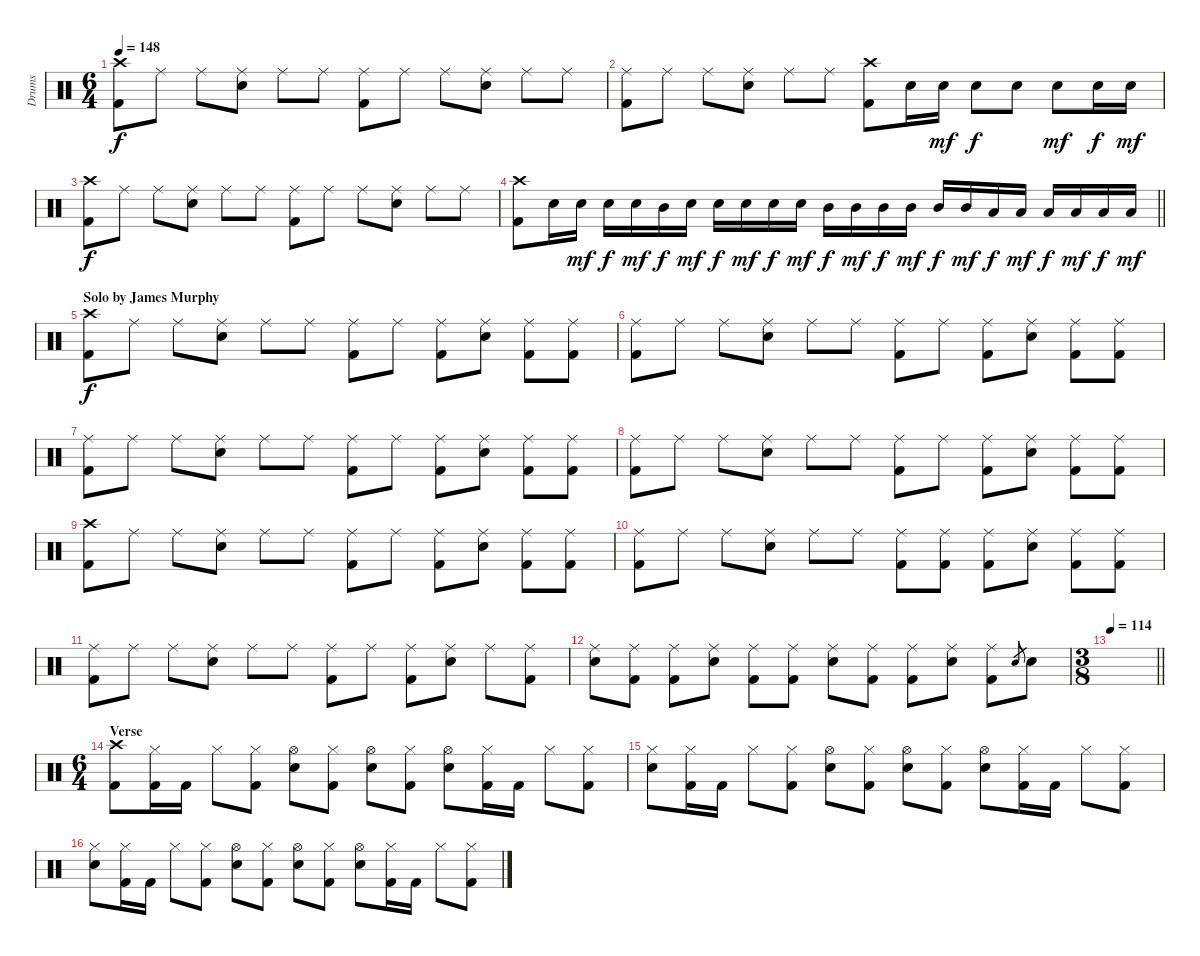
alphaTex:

\track ("Drums" "Drums") {instrument percussion}
\staff {score}
\articulation defaults
\ts (6 4)
\tempo 148
\clef neutral
\ks c
("Crash high (hit)" "Kick (hit) 2").8{dy f} "Ride (middle)".8 "Ride (middle)".8 ("Ride (middle)" "Snare (hit) 2").8 "Ride (middle)".8 "Ride (middle)".8 ("Ride (middle)" "Kick (hit) 2").8 "Ride (middle)".8 "Ride (middle)".8 ("Ride (middle)" "Snare (hit) 2").8 "Ride (middle)".8 "Ride (middle)".8 |
("Ride (middle)" "Kick (hit) 2").8 "Ride (middle)".8 "Ride (middle)".8 ("Ride (middle)" "Snare (hit) 2").8 "Ride (middle)".8 "Ride (middle)".8 ("Crash high (hit)" "Kick (hit) 2").8 "Snare (hit) 2".16 "Snare (hit) 2".16{dy mf} "Snare (hit) 2".8{dy f} "Snare (hit) 2".8 "Snare (hit) 2".8{dy mf} "Snare (hit) 2".16{dy f} "Snare (hit) 2".16{dy mf} |
("Crash high (hit)" "Kick (hit) 2").8{dy f} "Ride (middle)".8 "Ride (middle)".8 ("Ride (middle)" "Snare (hit) 2").8 "Ride (middle)".8 "Ride (middle)".8 ("Ride (middle)" "Kick (hit) 2").8 "Ride (middle)".8 "Ride (middle)".8 ("Ride (middle)" "Snare (hit) 2").8 "Ride (middle)".8 "Ride (middle)".8 |
\barLineRight lightlight
("Crash high (hit)" "Kick (hit) 2").8 "Snare (hit) 2".16 "Snare (hit) 2".16{dy mf} "Snare (hit) 2".16{dy f} "Snare (hit) 2".16{dy mf} "Mid Tom (hit)".16{dy f} "Snare (hit) 2".16{dy mf} "Snare (hit) 2".16{dy f} "Snare (hit) 2".16{dy mf} "Snare (hit) 2".16{dy f} "Snare (hit) 2".16{dy mf} "Mid Tom (hit)".16{dy f} "Mid Tom (hit)".16{dy mf} "Mid Tom (hit)".16{dy f} "Mid Tom (hit)".16{dy mf} "Mid Tom (hit)".16{dy f} "Mid Tom (hit)".16{dy mf} "Low Tom (hit)".16{dy f} "Low Tom (hit)".16{dy mf} "Low Tom (hit)".16{dy f} "Low Tom (hit)".16{dy mf} "Low Tom (hit)".16{dy f} "Low Tom (hit)".16{dy mf} |
\section ("" "Solo by James Murphy")
("Crash high (hit)" "Kick (hit) 2").8{dy f} "Ride (middle)".8 "Ride (middle)".8 ("Ride (middle)" "Snare (hit) 2").8 "Ride (middle)".8 "Ride (middle)".8 ("Ride (middle)" "Kick (hit) 2").8 "Ride (middle)".8 ("Ride (middle)" "Kick (hit) 2").8 ("Ride (middle)" "Snare (hit) 2").8 ("Ride (middle)" "Kick (hit) 2").8 ("Ride (middle)" "Kick (hit) 2").8 |
("Ride (middle)" "Kick (hit) 2").8 "Ride (middle)".8 "Ride (middle)".8 ("Ride (middle)" "Snare (hit) 2").8 "Ride (middle)".8 "Ride (middle)".8 ("Ride (middle)" "Kick (hit) 2").8 "Ride (middle)".8 ("Ride (middle)" "Kick (hit) 2").8 ("Ride (middle)" "Snare (hit) 2").8 ("Ride (middle)" "Kick (hit) 2").8 ("Ride (middle)" "Kick (hit) 2").8 |
("Ride (middle)" "Kick (hit) 2").8 "Ride (middle)".8 "Ride (middle)".8 ("Ride (middle)" "Snare (hit) 2").8 "Ride (middle)".8 "Ride (middle)".8 ("Ride (middle)" "Kick (hit) 2").8 "Ride (middle)".8 ("Ride (middle)" "Kick (hit) 2").8 ("Ride (middle)" "Snare (hit) 2").8 ("Ride (middle)" "Kick (hit) 2").8 ("Ride (middle)" "Kick (hit) 2").8 |
("Ride (middle)" "Kick (hit) 2").8 "Ride (middle)".8 "Ride (middle)".8 ("Ride (middle)" "Snare (hit) 2").8 "Ride (middle)".8 "Ride (middle)".8 ("Ride (middle)" "Kick (hit) 2").8 "Ride (middle)".8 ("Ride (middle)" "Kick (hit) 2").8 ("Ride (middle)" "Snare (hit) 2").8 ("Ride (middle)" "Kick (hit) 2").8 ("Ride (middle)" "Kick (hit) 2").8 |
("Crash high (hit)" "Kick (hit) 2").8 "Ride (middle)".8 "Ride (middle)".8 ("Ride (middle)" "Snare (hit) 2").8 "Ride (middle)".8 "Ride (middle)".8 ("Ride (middle)" "Kick (hit) 2").8 "Ride (middle)".8 ("Ride (middle)" "Kick (hit) 2").8 ("Ride (middle)" "Snare (hit) 2").8 ("Ride (middle)" "Kick (hit) 2").8 ("Ride (middle)" "Kick (hit) 2").8 |
("Ride (middle)" "Kick (hit) 2").8 "Ride (middle)".8 "Ride (middle)".8 ("Ride (middle)" "Snare (hit) 2").8 "Ride (middle)".8 "Ride (middle)".8 ("Ride (middle)" "Kick (hit) 2").8 ("Ride (middle)" "Kick (hit) 2").8 ("Ride (middle)" "Kick (hit) 2").8 ("Ride (middle)" "Snare (hit) 2").8 ("Ride (middle)" "Kick (hit) 2").8 ("Ride (middle)" "Kick (hit) 2").8 |
("Ride (middle)" "Kick (hit) 2").8 "Ride (middle)".8 "Ride (middle)".8 ("Ride (middle)" "Snare (hit) 2").8 "Ride (middle)".8 "Ride (middle)".8 ("Ride (middle)" "Kick (hit) 2").8 "Ride (middle)".8 ("Ride (middle)" "Kick (hit) 2").8 ("Ride (middle)" "Snare (hit) 2").8 "Ride (middle)".8 ("Ride (middle)" "Kick (hit) 2").8 |
("Ride (middle)" "Snare (hit) 2").8 ("Ride (middle)" "Kick (hit) 2").8 ("Ride (middle)" "Kick (hit) 2").8 ("Ride (middle)" "Snare (hit) 2").8 ("Ride (middle)" "Kick (hit) 2").8 ("Ride (middle)" "Kick (hit) 2").8 ("Ride (middle)" "Snare (hit) 2").8 ("Ride (middle)" "Kick (hit) 2").8 ("Ride (middle)" "Kick (hit) 2").8 ("Ride (middle)" "Snare (hit) 2").8 ("Ride (middle)" "Kick (hit) 2").8 "Snare (hit) 2".8{gr} "Snare (hit) 2".8 |
\ts (3 8)
\tempo 114
\barLineRight lightlight
|
\ts (6 4)
\section ("" "Verse")
("Crash high (hit)" "Kick (hit) 2").8 ("Hi-Hat (closed)" "Kick (hit) 2").16 "Kick (hit) 2".16 "Hi-Hat (closed)".8 ("Hi-Hat (closed)" "Kick (hit) 2").8 ("Hi-Hat (open)" "Snare (hit) 2").8 ("Hi-Hat (closed)" "Kick (hit) 2").8 ("Hi-Hat (open)" "Snare (hit) 2").8 ("Hi-Hat (closed)" "Kick (hit) 2").8 ("Hi-Hat (open)" "Snare (hit) 2").8 ("Hi-Hat (closed)" "Kick (hit) 2").16 "Kick (hit) 2".16 "Hi-Hat (closed)".8 ("Hi-Hat (closed)" "Kick (hit) 2").8 |
("Hi-Hat (closed)" "Snare (hit) 2").8 ("Hi-Hat (closed)" "Kick (hit) 2").16 "Kick (hit) 2".16 "Hi-Hat (closed)".8 ("Hi-Hat (closed)" "Kick (hit) 2").8 ("Hi-Hat (open)" "Snare (hit) 2").8 ("Hi-Hat (closed)" "Kick (hit) 2").8 ("Hi-Hat (open)" "Snare (hit) 2").8 ("Hi-Hat (closed)" "Kick (hit) 2").8 ("Hi-Hat (open)" "Snare (hit) 2").8 ("Hi-Hat (closed)" "Kick (hit) 2").16 "Kick (hit) 2".16 "Hi-Hat (closed)".8 ("Hi-Hat (closed)" "Kick (hit) 2").8 |
("Hi-Hat (closed)" "Snare (hit) 2").8 ("Hi-Hat (closed)" "Kick (hit) 2").16 "Kick (hit) 2".16 "Hi-Hat (closed)".8 ("Hi-Hat (closed)" "Kick (hit) 2").8 ("Hi-Hat (open)" "Snare (hit) 2").8 ("Hi-Hat (closed)" "Kick (hit) 2").8 ("Hi-Hat (open)" "Snare (hit) 2").8 ("Hi-Hat (closed)" "Kick (hit) 2").8 ("Hi-Hat (open)" "Snare (hit) 2").8 ("Hi-Hat (closed)" "Kick (hit) 2").16 "Kick (hit) 2".16 "Hi-Hat (closed)".8 ("Hi-Hat (closed)" "Kick (hit) 2").8
